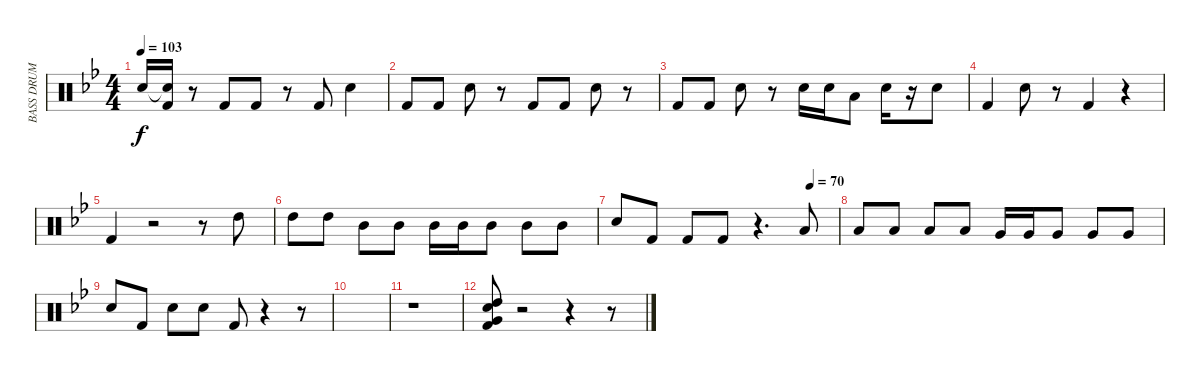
\track ("BASS DRUM / SNARE / TOMS" "BASS DRUM ") {instrument percussion}
\staff {score}
\articulation defaults
\ts (4 4)
\tempo 103
\clef neutral
\ks bb "Snare (hit) 2".16{dy f}
("Snare (hit) 2"{t} "Kick (hit) 2").16 r.8 "Kick (hit) 2".8 "Kick (hit) 2".8 r.8 "Kick (hit) 2".8 "Snare (hit) 2".4 |
"Kick (hit) 2".8 "Kick (hit) 2".8 "Snare (hit) 2".8 r.8 "Kick (hit) 2".8 "Kick (hit) 2".8 "Snare (hit) 2".8 r.8 |
"Kick (hit) 2".8 "Kick (hit) 2".8 "Snare (hit) 2".8 r.8 "Snare (hit) 2".16 "Snare (hit) 2".16 "Low Floor Tom (hit)".8 "Snare (hit) 2".16 r.16 "Snare (hit) 2".8 |
"Kick (hit) 2".4 "Snare (hit) 2".8 r.8 "Kick (hit) 2".4 r.4 |
"Kick (hit) 2".4 r.2 r.8 "High Tom (hit)".8 |
"High Tom (hit)".8 "High Tom (hit)".8 "Mid Tom (hit)".8 "Mid Tom (hit)".8 "Mid Tom (hit)".16 "Mid Tom (hit)".16 "Mid Tom (hit)".8 "Mid Tom (hit)".8 "Mid Tom (hit)".8 |
\tempo (70 0.875)
"Snare (hit) 2".8 "Kick (hit) 2".8 "Kick (hit) 2".8 "Kick (hit) 2".8 r.4{d} "Low Tom (hit)".8 |
"Low Tom (hit)".8 "Low Tom (hit)".8 "Low Tom (hit)".8 "Low Tom (hit)".8 "Very Low Tom (hit)".16 "Very Low Tom (hit)".16 "Very Low Tom (hit)".8 "Very Low Tom (hit)".8 "Very Low Tom (hit)".8 |
"Snare (hit) 2".8 "Kick (hit) 2".8 "Snare (hit) 2".8 "Snare (hit) 2".8 "Kick (hit) 2".8 r.4 r.8 |
|
r.1 |
("High Tom (hit)" "Snare (hit) 2" "Very Low Tom (hit)" "Kick (hit) 2").8 r.2 r.4 r.8
